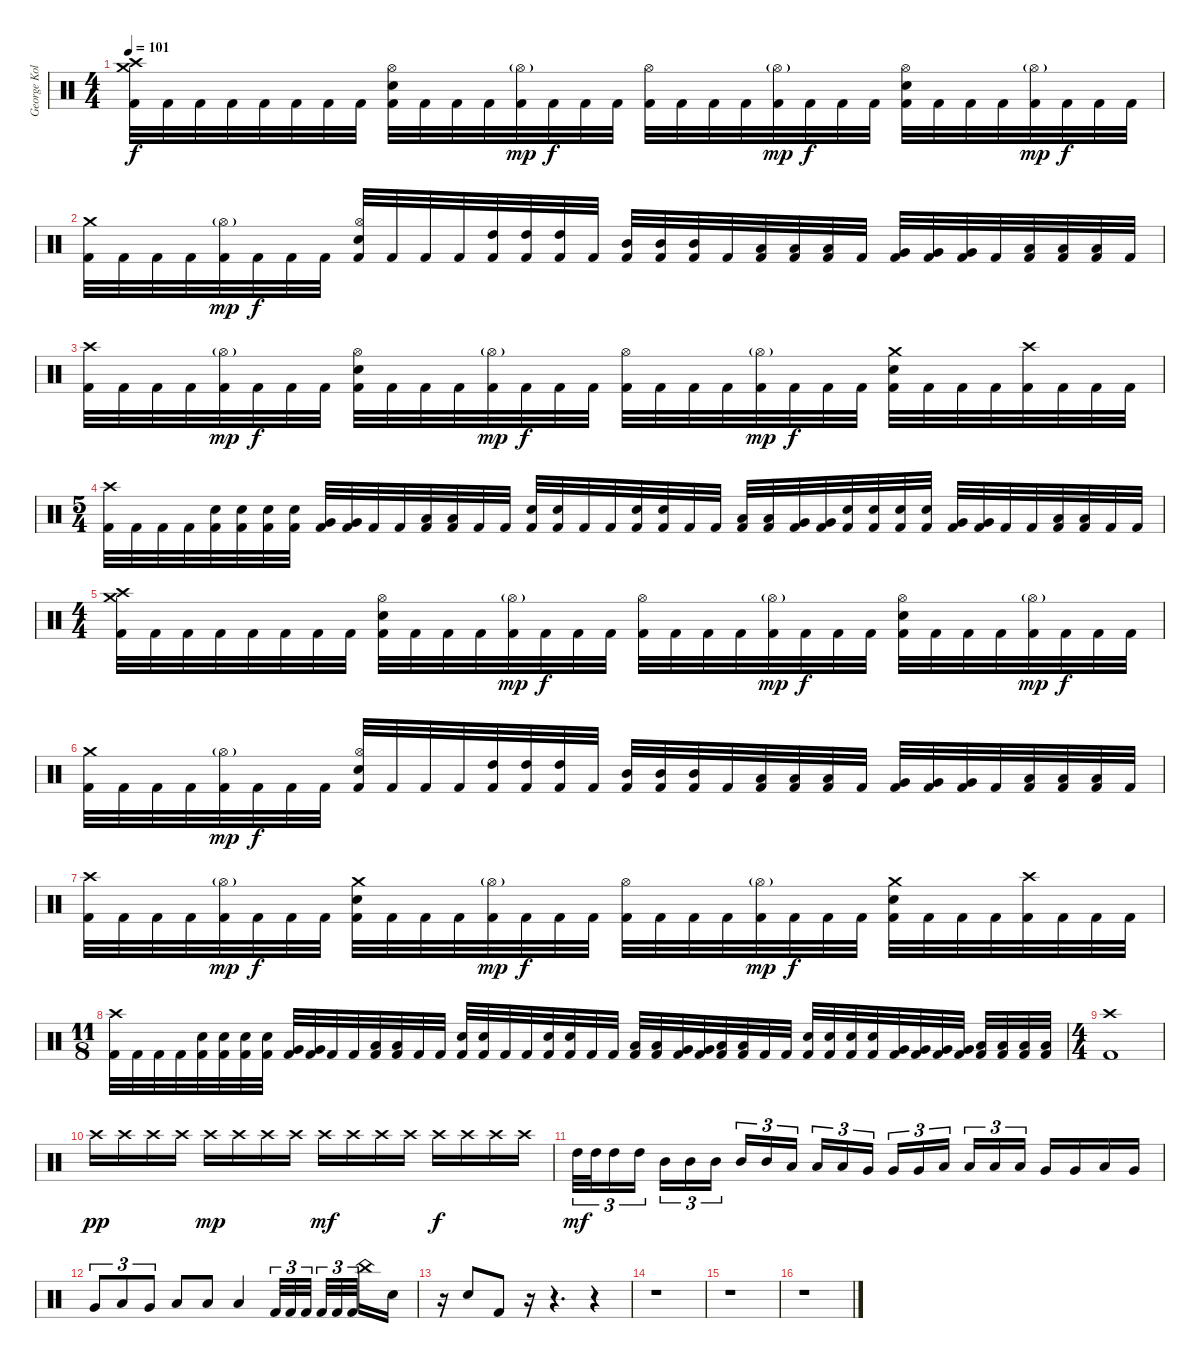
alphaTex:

\track ("George Kollias" "George Kol") {instrument percussion}
\staff {score}
\articulation defaults
\ts (4 4)
\tempo 101
\clef neutral
\ks c
("Crash medium (hit)" "Crash high (hit)" "Kick (hit) 2").32{dy f} "Kick (hit) 2".32 "Kick (hit) 2".32 "Kick (hit) 2".32 "Kick (hit) 2".32 "Kick (hit) 2".32 "Kick (hit) 2".32 "Kick (hit) 2".32 ("Hi-Hat (open)" "Electric Snare (hit)" "Kick (hit) 2").32 "Kick (hit) 2".32 "Kick (hit) 2".32 "Kick (hit) 2".32 ("Hi-Hat (open)"{g} "Kick (hit) 2").32{dy mp} "Kick (hit) 2".32{dy f} "Kick (hit) 2".32 "Kick (hit) 2".32 ("Hi-Hat (open)" "Kick (hit) 2").32 "Kick (hit) 2".32 "Kick (hit) 2".32 "Kick (hit) 2".32 ("Hi-Hat (open)"{g} "Kick (hit) 2").32{dy mp} "Kick (hit) 2".32{dy f} "Kick (hit) 2".32 "Kick (hit) 2".32 ("Hi-Hat (open)" "Electric Snare (hit)" "Kick (hit) 2").32 "Kick (hit) 2".32 "Kick (hit) 2".32 "Kick (hit) 2".32 ("Hi-Hat (open)"{g} "Kick (hit) 2").32{dy mp} "Kick (hit) 2".32{dy f} "Kick (hit) 2".32 "Kick (hit) 2".32 |
("Crash medium (hit)" "Kick (hit) 2").32 "Kick (hit) 2".32 "Kick (hit) 2".32 "Kick (hit) 2".32 ("Hi-Hat (open)"{g} "Kick (hit) 2").32{dy mp} "Kick (hit) 2".32{dy f} "Kick (hit) 2".32 "Kick (hit) 2".32 ("Hi-Hat (open)" "Electric Snare (hit)" "Kick (hit) 2").32 "Kick (hit) 2".32 "Kick (hit) 2".32 "Kick (hit) 2".32 ("High Tom (hit)" "Kick (hit) 2").32 ("High Tom (hit)" "Kick (hit) 2").32 ("High Tom (hit)" "Kick (hit) 2").32 "Kick (hit) 2".32 ("Mid Tom (hit)" "Kick (hit) 2").32 ("Mid Tom (hit)" "Kick (hit) 2").32 ("Mid Tom (hit)" "Kick (hit) 2").32 "Kick (hit) 2".32 ("Low Tom (hit)" "Kick (hit) 2").32 ("Low Tom (hit)" "Kick (hit) 2").32 ("Low Tom (hit)" "Kick (hit) 2").32 "Kick (hit) 2".32 ("Very Low Tom (hit)" "Kick (hit) 2").32 ("Very Low Tom (hit)" "Kick (hit) 2").32 ("Very Low Tom (hit)" "Kick (hit) 2").32 "Kick (hit) 2".32 ("Low Floor Tom (hit)" "Kick (hit) 2").32 ("Low Floor Tom (hit)" "Kick (hit) 2").32 ("Low Floor Tom (hit)" "Kick (hit) 2").32 "Kick (hit) 2".32 |
("Crash high (hit)" "Kick (hit) 2").32 "Kick (hit) 2".32 "Kick (hit) 2".32 "Kick (hit) 2".32 ("Hi-Hat (open)"{g} "Kick (hit) 2").32{dy mp} "Kick (hit) 2".32{dy f} "Kick (hit) 2".32 "Kick (hit) 2".32 ("Hi-Hat (open)" "Electric Snare (hit)" "Kick (hit) 2").32 "Kick (hit) 2".32 "Kick (hit) 2".32 "Kick (hit) 2".32 ("Hi-Hat (open)"{g} "Kick (hit) 2").32{dy mp} "Kick (hit) 2".32{dy f} "Kick (hit) 2".32 "Kick (hit) 2".32 ("Hi-Hat (open)" "Kick (hit) 2").32 "Kick (hit) 2".32 "Kick (hit) 2".32 "Kick (hit) 2".32 ("Hi-Hat (open)"{g} "Kick (hit) 2").32{dy mp} "Kick (hit) 2".32{dy f} "Kick (hit) 2".32 "Kick (hit) 2".32 ("Crash medium (hit)" "Electric Snare (hit)" "Kick (hit) 2").32 "Kick (hit) 2".32 "Kick (hit) 2".32 "Kick (hit) 2".32 ("Crash high (hit)" "Kick (hit) 2").32 "Kick (hit) 2".32 "Kick (hit) 2".32 "Kick (hit) 2".32 |
\ts (5 4)
("Crash high (hit)" "Kick (hit) 2").32 "Kick (hit) 2".32 "Kick (hit) 2".32 "Kick (hit) 2".32 ("Electric Snare (hit)" "Kick (hit) 2").32 ("Electric Snare (hit)" "Kick (hit) 2").32 ("Electric Snare (hit)" "Kick (hit) 2").32 ("Electric Snare (hit)" "Kick (hit) 2").32 ("Very Low Tom (hit)" "Kick (hit) 2").32 ("Very Low Tom (hit)" "Kick (hit) 2").32 "Kick (hit) 2".32 "Kick (hit) 2".32 ("Low Floor Tom (hit)" "Kick (hit) 2").32 ("Low Floor Tom (hit)" "Kick (hit) 2").32 "Kick (hit) 2".32 "Kick (hit) 2".32 ("Electric Snare (hit)" "Kick (hit) 2").32 ("Electric Snare (hit)" "Kick (hit) 2").32 "Kick (hit) 2".32 "Kick (hit) 2".32 ("Electric Snare (hit)" "Kick (hit) 2").32 ("Electric Snare (hit)" "Kick (hit) 2").32 "Kick (hit) 2".32 "Kick (hit) 2".32 ("Low Tom (hit)" "Kick (hit) 2").32 ("Low Tom (hit)" "Kick (hit) 2").32 ("Very Low Tom (hit)" "Kick (hit) 2").32 ("Very Low Tom (hit)" "Kick (hit) 2").32 ("Electric Snare (hit)" "Kick (hit) 2").32 ("Electric Snare (hit)" "Kick (hit) 2").32 ("Electric Snare (hit)" "Kick (hit) 2").32 ("Electric Snare (hit)" "Kick (hit) 2").32 ("Very Low Tom (hit)" "Kick (hit) 2").32 ("Very Low Tom (hit)" "Kick (hit) 2").32 "Kick (hit) 2".32 "Kick (hit) 2".32 ("Low Floor Tom (hit)" "Kick (hit) 2").32 ("Low Floor Tom (hit)" "Kick (hit) 2").32 "Kick (hit) 2".32 "Kick (hit) 2".32 |
\ts (4 4)
("Crash medium (hit)" "Crash high (hit)" "Kick (hit) 2").32 "Kick (hit) 2".32 "Kick (hit) 2".32 "Kick (hit) 2".32 "Kick (hit) 2".32 "Kick (hit) 2".32 "Kick (hit) 2".32 "Kick (hit) 2".32 ("Hi-Hat (open)" "Electric Snare (hit)" "Kick (hit) 2").32 "Kick (hit) 2".32 "Kick (hit) 2".32 "Kick (hit) 2".32 ("Hi-Hat (open)"{g} "Kick (hit) 2").32{dy mp} "Kick (hit) 2".32{dy f} "Kick (hit) 2".32 "Kick (hit) 2".32 ("Hi-Hat (open)" "Kick (hit) 2").32 "Kick (hit) 2".32 "Kick (hit) 2".32 "Kick (hit) 2".32 ("Hi-Hat (open)"{g} "Kick (hit) 2").32{dy mp} "Kick (hit) 2".32{dy f} "Kick (hit) 2".32 "Kick (hit) 2".32 ("Hi-Hat (open)" "Electric Snare (hit)" "Kick (hit) 2").32 "Kick (hit) 2".32 "Kick (hit) 2".32 "Kick (hit) 2".32 ("Hi-Hat (open)"{g} "Kick (hit) 2").32{dy mp} "Kick (hit) 2".32{dy f} "Kick (hit) 2".32 "Kick (hit) 2".32 |
("Crash medium (hit)" "Kick (hit) 2").32 "Kick (hit) 2".32 "Kick (hit) 2".32 "Kick (hit) 2".32 ("Hi-Hat (open)"{g} "Kick (hit) 2").32{dy mp} "Kick (hit) 2".32{dy f} "Kick (hit) 2".32 "Kick (hit) 2".32 ("Hi-Hat (open)" "Electric Snare (hit)" "Kick (hit) 2").32 "Kick (hit) 2".32 "Kick (hit) 2".32 "Kick (hit) 2".32 ("High Tom (hit)" "Kick (hit) 2").32 ("High Tom (hit)" "Kick (hit) 2").32 ("High Tom (hit)" "Kick (hit) 2").32 "Kick (hit) 2".32 ("Mid Tom (hit)" "Kick (hit) 2").32 ("Mid Tom (hit)" "Kick (hit) 2").32 ("Mid Tom (hit)" "Kick (hit) 2").32 "Kick (hit) 2".32 ("Low Tom (hit)" "Kick (hit) 2").32 ("Low Tom (hit)" "Kick (hit) 2").32 ("Low Tom (hit)" "Kick (hit) 2").32 "Kick (hit) 2".32 ("Very Low Tom (hit)" "Kick (hit) 2").32 ("Very Low Tom (hit)" "Kick (hit) 2").32 ("Very Low Tom (hit)" "Kick (hit) 2").32 "Kick (hit) 2".32 ("Low Floor Tom (hit)" "Kick (hit) 2").32 ("Low Floor Tom (hit)" "Kick (hit) 2").32 ("Low Floor Tom (hit)" "Kick (hit) 2").32 "Kick (hit) 2".32 |
("Crash high (hit)" "Kick (hit) 2").32 "Kick (hit) 2".32 "Kick (hit) 2".32 "Kick (hit) 2".32 ("Hi-Hat (open)"{g} "Kick (hit) 2").32{dy mp} "Kick (hit) 2".32{dy f} "Kick (hit) 2".32 "Kick (hit) 2".32 ("Crash medium (hit)" "Electric Snare (hit)" "Kick (hit) 2").32 "Kick (hit) 2".32 "Kick (hit) 2".32 "Kick (hit) 2".32 ("Hi-Hat (open)"{g} "Kick (hit) 2").32{dy mp} "Kick (hit) 2".32{dy f} "Kick (hit) 2".32 "Kick (hit) 2".32 ("Hi-Hat (open)" "Kick (hit) 2").32 "Kick (hit) 2".32 "Kick (hit) 2".32 "Kick (hit) 2".32 ("Hi-Hat (open)"{g} "Kick (hit) 2").32{dy mp} "Kick (hit) 2".32{dy f} "Kick (hit) 2".32 "Kick (hit) 2".32 ("Crash medium (hit)" "Electric Snare (hit)" "Kick (hit) 2").32 "Kick (hit) 2".32 "Kick (hit) 2".32 "Kick (hit) 2".32 ("Crash high (hit)" "Kick (hit) 2").32 "Kick (hit) 2".32 "Kick (hit) 2".32 "Kick (hit) 2".32 |
\ts (11 8)
("Crash high (hit)" "Kick (hit) 2").32 "Kick (hit) 2".32 "Kick (hit) 2".32 "Kick (hit) 2".32 ("Electric Snare (hit)" "Kick (hit) 2").32 ("Electric Snare (hit)" "Kick (hit) 2").32 ("Electric Snare (hit)" "Kick (hit) 2").32 ("Electric Snare (hit)" "Kick (hit) 2").32 ("Very Low Tom (hit)" "Kick (hit) 2").32 ("Very Low Tom (hit)" "Kick (hit) 2").32 "Kick (hit) 2".32 "Kick (hit) 2".32 ("Low Floor Tom (hit)" "Kick (hit) 2").32 ("Low Floor Tom (hit)" "Kick (hit) 2").32 "Kick (hit) 2".32 "Kick (hit) 2".32 ("Electric Snare (hit)" "Kick (hit) 2").32 ("Electric Snare (hit)" "Kick (hit) 2").32 "Kick (hit) 2".32 "Kick (hit) 2".32 ("Electric Snare (hit)" "Kick (hit) 2").32 ("Electric Snare (hit)" "Kick (hit) 2").32 "Kick (hit) 2".32 "Kick (hit) 2".32 ("Low Tom (hit)" "Kick (hit) 2").32 ("Low Tom (hit)" "Kick (hit) 2").32 ("Very Low Tom (hit)" "Kick (hit) 2").32 ("Very Low Tom (hit)" "Kick (hit) 2").32 ("Low Floor Tom (hit)" "Kick (hit) 2").32 ("Low Floor Tom (hit)" "Kick (hit) 2").32 "Kick (hit) 2".32 "Kick (hit) 2".32 ("Electric Snare (hit)" "Kick (hit) 2").32 ("Electric Snare (hit)" "Kick (hit) 2").32 ("Electric Snare (hit)" "Kick (hit) 2").32 ("Electric Snare (hit)" "Kick (hit) 2").32 ("Very Low Tom (hit)" "Kick (hit) 2").32 ("Very Low Tom (hit)" "Kick (hit) 2").32 ("Very Low Tom (hit)" "Kick (hit) 2").32 ("Very Low Tom (hit)" "Kick (hit) 2").32 ("Low Floor Tom (hit)" "Kick (hit) 2").32 ("Low Floor Tom (hit)" "Kick (hit) 2").32 ("Low Floor Tom (hit)" "Kick (hit) 2").32 ("Low Floor Tom (hit)" "Kick (hit) 2").32 |
\ts (4 4)
("Crash high (hit)" "Kick (hit) 2").1 |
"Crash high (hit)".16{dy pp} "Crash high (hit)".16 "Crash high (hit)".16 "Crash high (hit)".16 "Crash high (hit)".16{dy mp} "Crash high (hit)".16 "Crash high (hit)".16 "Crash high (hit)".16 "Crash high (hit)".16{dy mf} "Crash high (hit)".16 "Crash high (hit)".16 "Crash high (hit)".16 "Crash high (hit)".16{dy f} "Crash high (hit)".16 "Crash high (hit)".16 "Crash high (hit)".16 |
"High Tom (hit)".32{tu (3 2) dy mf} "High Tom (hit)".32{tu (3 2)} "High Tom (hit)".16{tu (3 2)} "High Tom (hit)".16{tu (3 2) beam splitsecondary} "Mid Tom (hit)".16{tu (3 2)} "Mid Tom (hit)".16{tu (3 2)} "Mid Tom (hit)".16{tu (3 2)} "Mid Tom (hit)".16{tu (3 2)} "Mid Tom (hit)".16{tu (3 2)} "Low Tom (hit)".16{tu (3 2) beam splitsecondary} "Low Tom (hit)".16{tu (3 2)} "Low Tom (hit)".16{tu (3 2)} "Very Low Tom (hit)".16{tu (3 2)} "Very Low Tom (hit)".16{tu (3 2)} "Very Low Tom (hit)".16{tu (3 2)} "Low Floor Tom (hit)".16{tu (3 2) beam splitsecondary} "Low Floor Tom (hit)".16{tu (3 2)} "Low Floor Tom (hit)".16{tu (3 2)} "Low Floor Tom (hit)".16{tu (3 2)} "Very Low Tom (hit)".16 "Very Low Tom (hit)".16 "Low Floor Tom (hit)".16 "Very Low Tom (hit)".16 |
"Very Low Tom (hit)".8{tu (3 2)} "Low Floor Tom (hit)".8{tu (3 2)} "Very Low Tom (hit)".8{tu (3 2)} "Low Floor Tom (hit)".8 "Low Floor Tom (hit)".8 "Low Floor Tom (hit)".4 "Kick (hit) 2".32{tu (3 2)} "Kick (hit) 2".32{tu (3 2)} "Kick (hit) 2".32{tu (3 2) beam splitsecondary} "Kick (hit) 2".32{tu (3 2)} "Kick (hit) 2".32{tu (3 2)} "Kick (hit) 2".32{tu (3 2) beam splitsecondary} "China (hit)".16 "Electric Snare (hit)".16 |
r.16 "Electric Snare (hit)".8 "Kick (hit) 2".8 r.16 r.4{d} r.4 |
r.1 |
r.1 |
r.1
